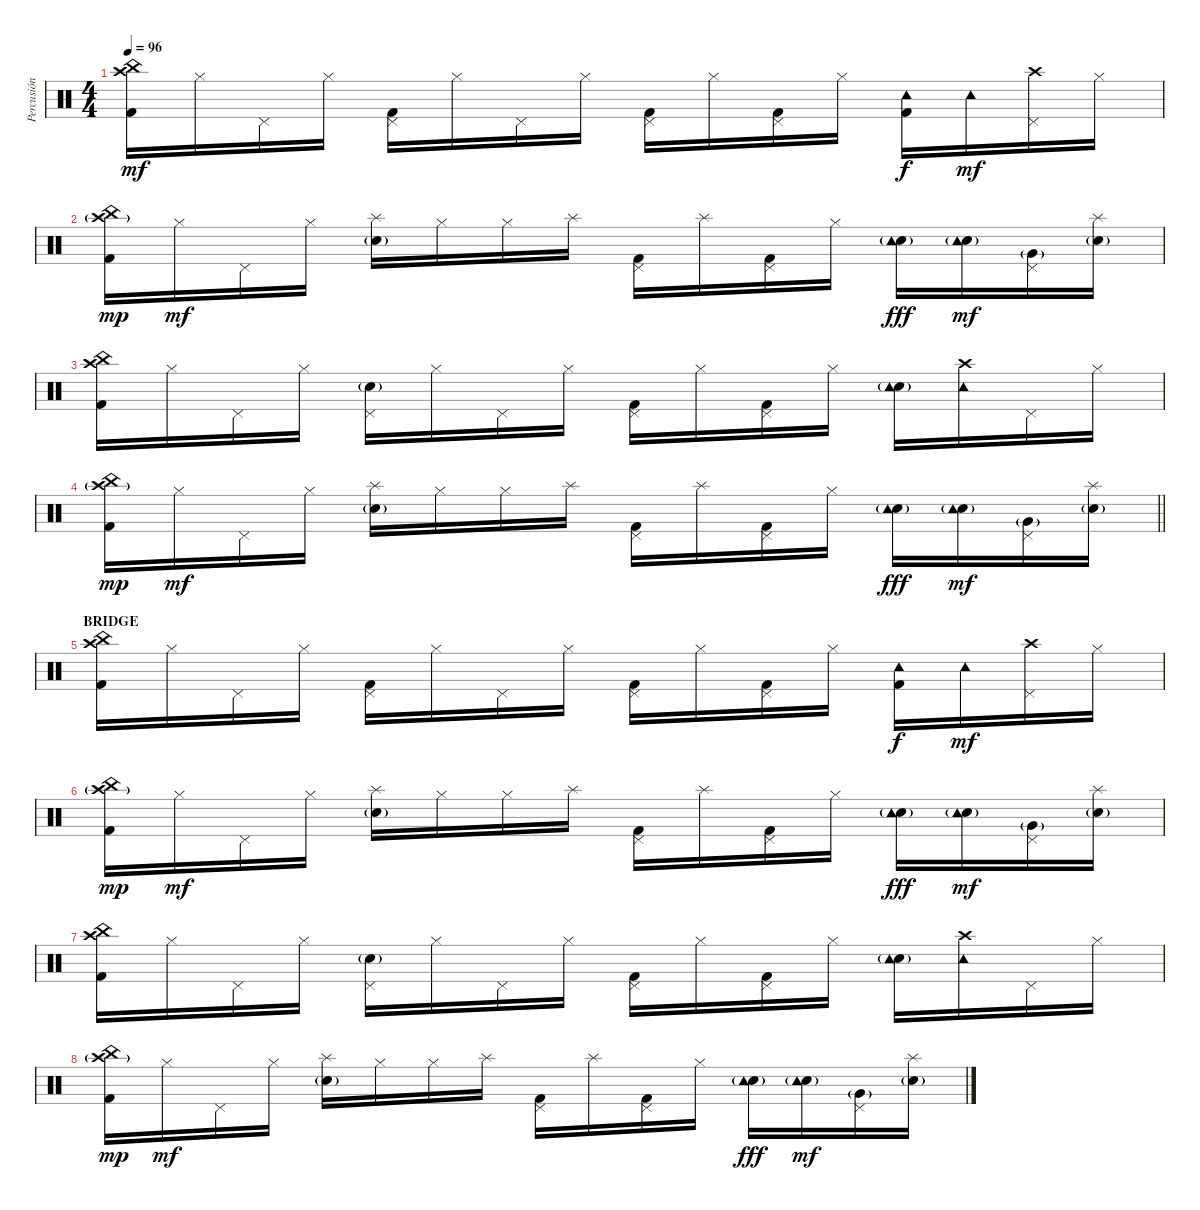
\track ("Percusión" "Percusión") {instrument percussion}
\staff {score}
\articulation defaults
\ts (4 4)
\tempo 96
\clef neutral
\ks c
("China (hit)" "Kick (hit) 2" "Crash high (hit)").16{dy mf} "Hi-Hat (closed)".16 "Pedal Hi-Hat (hit)".16 "Hi-Hat (closed)".16 ("Kick (hit) 2" "Pedal Hi-Hat (hit)").16 "Hi-Hat (closed)".16 "Pedal Hi-Hat (hit)".16 "Hi-Hat (closed)".16 ("Kick (hit) 2" "Pedal Hi-Hat (hit)").16 "Hi-Hat (closed)".16 ("Kick (hit) 2" "Pedal Hi-Hat (hit)").16 "Hi-Hat (closed)".16 ("Kick (hit) 2" "Tambourine (hit)").16{dy f} "Tambourine (hit)".16{dy mf} ("Crash high (hit)" "Pedal Hi-Hat (hit)").16 "Hi-Hat (closed)".16 |
("China (hit)" "Kick (hit) 2" "Crash high (hit)"{g}).16{dy mp} "Hi-Hat (closed)".16{dy mf} "Pedal Hi-Hat (hit)".16 "Hi-Hat (closed)".16 ("Electric Snare (hit)"{g} "Splash (hit)").16 "Hi-Hat (closed)".16 "Hi-Hat (closed)".16 "Splash (hit)".16 ("Kick (hit) 2" "Pedal Hi-Hat (hit)").16 "Splash (hit)".16 ("Kick (hit) 2" "Pedal Hi-Hat (hit)").16 "Hi-Hat (closed)".16 ("Electric Snare (hit)"{g} "Tambourine (hit)").16{dy fff} ("Electric Snare (hit)"{g} "Tambourine (hit)").16{dy mf} ("Very Low Tom (hit)"{g} "Pedal Hi-Hat (hit)").16 ("Electric Snare (hit)"{g} "Splash (hit)").16 |
("China (hit)" "Kick (hit) 2" "Crash high (hit)").16 "Hi-Hat (closed)".16 "Pedal Hi-Hat (hit)".16 "Hi-Hat (closed)".16 ("Electric Snare (hit)"{g} "Pedal Hi-Hat (hit)").16 "Hi-Hat (closed)".16 "Pedal Hi-Hat (hit)".16 "Hi-Hat (closed)".16 ("Kick (hit) 2" "Pedal Hi-Hat (hit)").16 "Hi-Hat (closed)".16 ("Kick (hit) 2" "Pedal Hi-Hat (hit)").16 "Hi-Hat (closed)".16 ("Electric Snare (hit)"{g} "Tambourine (hit)").16 ("Crash high (hit)" "Tambourine (hit)").16 "Pedal Hi-Hat (hit)".16 "Hi-Hat (closed)".16 |
\barLineRight lightlight
("China (hit)" "Kick (hit) 2" "Crash high (hit)"{g}).16{dy mp} "Hi-Hat (closed)".16{dy mf} "Pedal Hi-Hat (hit)".16 "Hi-Hat (closed)".16 ("Electric Snare (hit)"{g} "Splash (hit)").16 "Hi-Hat (closed)".16 "Hi-Hat (closed)".16 "Splash (hit)".16 ("Kick (hit) 2" "Pedal Hi-Hat (hit)").16 "Splash (hit)".16 ("Kick (hit) 2" "Pedal Hi-Hat (hit)").16 "Hi-Hat (closed)".16 ("Electric Snare (hit)"{g} "Tambourine (hit)").16{dy fff} ("Electric Snare (hit)"{g} "Tambourine (hit)").16{dy mf} ("Very Low Tom (hit)"{g} "Pedal Hi-Hat (hit)").16 ("Electric Snare (hit)"{g} "Splash (hit)").16 |
\section ("" "BRIDGE")
("China (hit)" "Kick (hit) 2" "Crash high (hit)").16 "Hi-Hat (closed)".16 "Pedal Hi-Hat (hit)".16 "Hi-Hat (closed)".16 ("Kick (hit) 2" "Pedal Hi-Hat (hit)").16 "Hi-Hat (closed)".16 "Pedal Hi-Hat (hit)".16 "Hi-Hat (closed)".16 ("Kick (hit) 2" "Pedal Hi-Hat (hit)").16 "Hi-Hat (closed)".16 ("Kick (hit) 2" "Pedal Hi-Hat (hit)").16 "Hi-Hat (closed)".16 ("Kick (hit) 2" "Tambourine (hit)").16{dy f} "Tambourine (hit)".16{dy mf} ("Crash high (hit)" "Pedal Hi-Hat (hit)").16 "Hi-Hat (closed)".16 |
("China (hit)" "Kick (hit) 2" "Crash high (hit)"{g}).16{dy mp} "Hi-Hat (closed)".16{dy mf} "Pedal Hi-Hat (hit)".16 "Hi-Hat (closed)".16 ("Electric Snare (hit)"{g} "Splash (hit)").16 "Hi-Hat (closed)".16 "Hi-Hat (closed)".16 "Splash (hit)".16 ("Kick (hit) 2" "Pedal Hi-Hat (hit)").16 "Splash (hit)".16 ("Kick (hit) 2" "Pedal Hi-Hat (hit)").16 "Hi-Hat (closed)".16 ("Electric Snare (hit)"{g} "Tambourine (hit)").16{dy fff} ("Electric Snare (hit)"{g} "Tambourine (hit)").16{dy mf} ("Very Low Tom (hit)"{g} "Pedal Hi-Hat (hit)").16 ("Electric Snare (hit)"{g} "Splash (hit)").16 |
("China (hit)" "Kick (hit) 2" "Crash high (hit)").16 "Hi-Hat (closed)".16 "Pedal Hi-Hat (hit)".16 "Hi-Hat (closed)".16 ("Electric Snare (hit)"{g} "Pedal Hi-Hat (hit)").16 "Hi-Hat (closed)".16 "Pedal Hi-Hat (hit)".16 "Hi-Hat (closed)".16 ("Kick (hit) 2" "Pedal Hi-Hat (hit)").16 "Hi-Hat (closed)".16 ("Kick (hit) 2" "Pedal Hi-Hat (hit)").16 "Hi-Hat (closed)".16 ("Electric Snare (hit)"{g} "Tambourine (hit)").16 ("Crash high (hit)" "Tambourine (hit)").16 "Pedal Hi-Hat (hit)".16 "Hi-Hat (closed)".16 |
("China (hit)" "Kick (hit) 2" "Crash high (hit)"{g}).16{dy mp} "Hi-Hat (closed)".16{dy mf} "Pedal Hi-Hat (hit)".16 "Hi-Hat (closed)".16 ("Electric Snare (hit)"{g} "Splash (hit)").16 "Hi-Hat (closed)".16 "Hi-Hat (closed)".16 "Splash (hit)".16 ("Kick (hit) 2" "Pedal Hi-Hat (hit)").16 "Splash (hit)".16 ("Kick (hit) 2" "Pedal Hi-Hat (hit)").16 "Hi-Hat (closed)".16 ("Electric Snare (hit)"{g} "Tambourine (hit)").16{dy fff} ("Electric Snare (hit)"{g} "Tambourine (hit)").16{dy mf} ("Very Low Tom (hit)"{g} "Pedal Hi-Hat (hit)").16 ("Electric Snare (hit)"{g} "Splash (hit)").16
